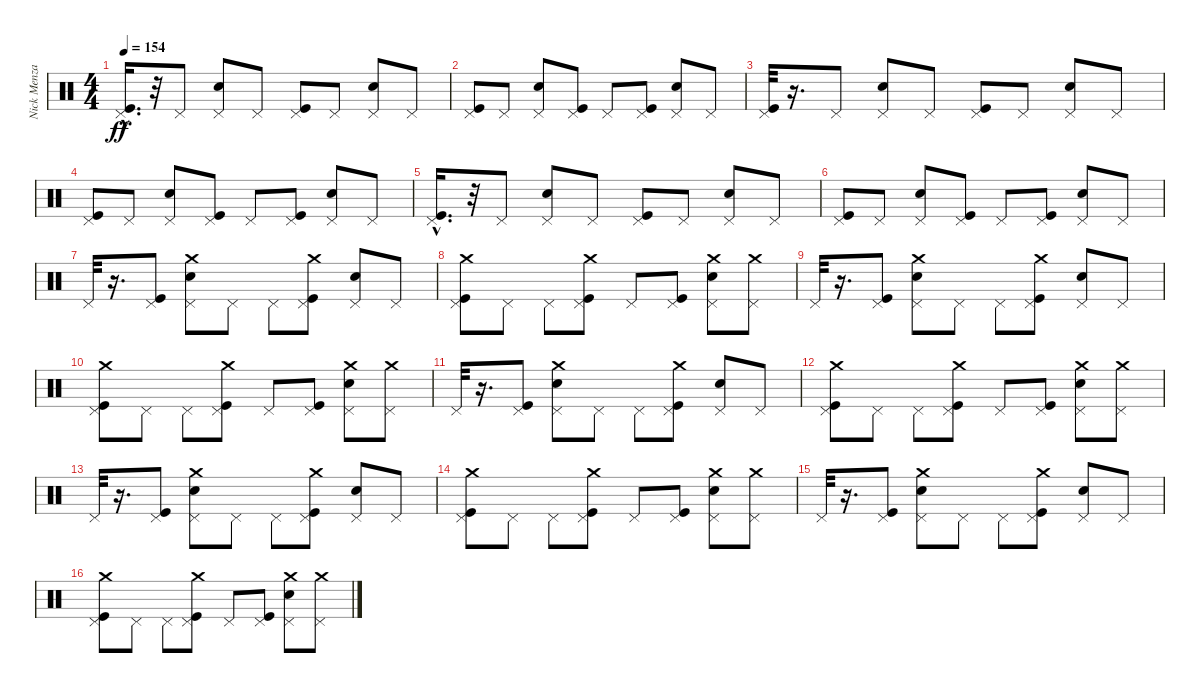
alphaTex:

\track ("Nick Menza" "Nick Menza") {instrument percussion}
\staff {score}
\articulation defaults
\ts (4 4)
\tempo 154
\clef neutral
\ks c
("Pedal Hi-Hat (hit)" "Kick (hit)"{hac}).16{d dy ff} r.32 "Pedal Hi-Hat (hit)".8 ("Pedal Hi-Hat (hit)" "Electric Snare (hit)").8 "Pedal Hi-Hat (hit)".8 ("Kick (hit)" "Pedal Hi-Hat (hit)").8 "Pedal Hi-Hat (hit)".8 ("Electric Snare (hit)" "Pedal Hi-Hat (hit)").8 "Pedal Hi-Hat (hit)".8 |
("Pedal Hi-Hat (hit)" "Kick (hit)").8 "Pedal Hi-Hat (hit)".8 ("Electric Snare (hit)" "Pedal Hi-Hat (hit)").8 ("Kick (hit)" "Pedal Hi-Hat (hit)").8 "Pedal Hi-Hat (hit)".8 ("Kick (hit)" "Pedal Hi-Hat (hit)").8 ("Electric Snare (hit)" "Pedal Hi-Hat (hit)").8 "Pedal Hi-Hat (hit)".8 |
("Kick (hit)" "Pedal Hi-Hat (hit)").32 r.16{d} "Pedal Hi-Hat (hit)".8 ("Pedal Hi-Hat (hit)" "Electric Snare (hit)").8 "Pedal Hi-Hat (hit)".8 ("Kick (hit)" "Pedal Hi-Hat (hit)").8 "Pedal Hi-Hat (hit)".8 ("Electric Snare (hit)" "Pedal Hi-Hat (hit)").8 "Pedal Hi-Hat (hit)".8 |
("Pedal Hi-Hat (hit)" "Kick (hit)").8 "Pedal Hi-Hat (hit)".8 ("Pedal Hi-Hat (hit)" "Electric Snare (hit)").8 ("Pedal Hi-Hat (hit)" "Kick (hit)").8 "Pedal Hi-Hat (hit)".8 ("Kick (hit)" "Pedal Hi-Hat (hit)").8 ("Electric Snare (hit)" "Pedal Hi-Hat (hit)").8 "Pedal Hi-Hat (hit)".8 |
("Pedal Hi-Hat (hit)" "Kick (hit)"{hac}).16{d} r.32 "Pedal Hi-Hat (hit)".8 ("Pedal Hi-Hat (hit)" "Electric Snare (hit)").8 "Pedal Hi-Hat (hit)".8 ("Kick (hit)" "Pedal Hi-Hat (hit)").8 "Pedal Hi-Hat (hit)".8 ("Electric Snare (hit)" "Pedal Hi-Hat (hit)").8 "Pedal Hi-Hat (hit)".8 |
("Pedal Hi-Hat (hit)" "Kick (hit)").8 "Pedal Hi-Hat (hit)".8 ("Pedal Hi-Hat (hit)" "Electric Snare (hit)").8 ("Pedal Hi-Hat (hit)" "Kick (hit)").8 "Pedal Hi-Hat (hit)".8 ("Kick (hit)" "Pedal Hi-Hat (hit)").8 ("Electric Snare (hit)" "Pedal Hi-Hat (hit)").8 "Pedal Hi-Hat (hit)".8 |
"Pedal Hi-Hat (hit)".32 r.16{d} ("Pedal Hi-Hat (hit)" "Kick (hit)").8 ("Pedal Hi-Hat (hit)" "Crash medium (hit)" "Electric Snare (hit)").8 "Pedal Hi-Hat (hit)".8 "Pedal Hi-Hat (hit)".8 ("Kick (hit)" "Pedal Hi-Hat (hit)" "Crash medium (hit)").8 ("Electric Snare (hit)" "Pedal Hi-Hat (hit)").8 "Pedal Hi-Hat (hit)".8 |
("Crash medium (hit)" "Kick (hit)" "Pedal Hi-Hat (hit)").8 "Pedal Hi-Hat (hit)".8 "Pedal Hi-Hat (hit)".8 ("Crash medium (hit)" "Pedal Hi-Hat (hit)" "Kick (hit)").8 "Pedal Hi-Hat (hit)".8 ("Kick (hit)" "Pedal Hi-Hat (hit)").8 ("Crash medium (hit)" "Electric Snare (hit)" "Pedal Hi-Hat (hit)").8 ("Crash medium (hit)" "Pedal Hi-Hat (hit)").8 |
"Pedal Hi-Hat (hit)".32 r.16{d} ("Pedal Hi-Hat (hit)" "Kick (hit)").8 ("Electric Snare (hit)" "Pedal Hi-Hat (hit)" "Crash medium (hit)").8 "Pedal Hi-Hat (hit)".8 "Pedal Hi-Hat (hit)".8 ("Kick (hit)" "Pedal Hi-Hat (hit)" "Crash medium (hit)").8 ("Electric Snare (hit)" "Pedal Hi-Hat (hit)").8 "Pedal Hi-Hat (hit)".8 |
("Crash medium (hit)" "Pedal Hi-Hat (hit)" "Kick (hit)").8 "Pedal Hi-Hat (hit)".8 "Pedal Hi-Hat (hit)".8 ("Crash medium (hit)" "Pedal Hi-Hat (hit)" "Kick (hit)").8 "Pedal Hi-Hat (hit)".8 ("Kick (hit)" "Pedal Hi-Hat (hit)").8 ("Crash medium (hit)" "Electric Snare (hit)" "Pedal Hi-Hat (hit)").8 ("Crash medium (hit)" "Pedal Hi-Hat (hit)").8 |
"Pedal Hi-Hat (hit)".32 r.16{d} ("Pedal Hi-Hat (hit)" "Kick (hit)").8 ("Crash medium (hit)" "Electric Snare (hit)" "Pedal Hi-Hat (hit)").8 "Pedal Hi-Hat (hit)".8 "Pedal Hi-Hat (hit)".8 ("Crash medium (hit)" "Kick (hit)" "Pedal Hi-Hat (hit)").8 ("Electric Snare (hit)" "Pedal Hi-Hat (hit)").8 "Pedal Hi-Hat (hit)".8 |
("Crash medium (hit)" "Pedal Hi-Hat (hit)" "Kick (hit)").8 "Pedal Hi-Hat (hit)".8 "Pedal Hi-Hat (hit)".8 ("Crash medium (hit)" "Pedal Hi-Hat (hit)" "Kick (hit)").8 "Pedal Hi-Hat (hit)".8 ("Kick (hit)" "Pedal Hi-Hat (hit)").8 ("Crash medium (hit)" "Electric Snare (hit)" "Pedal Hi-Hat (hit)").8 ("Crash medium (hit)" "Pedal Hi-Hat (hit)").8 |
"Pedal Hi-Hat (hit)".32 r.16{d} ("Pedal Hi-Hat (hit)" "Kick (hit)").8 ("Crash medium (hit)" "Pedal Hi-Hat (hit)" "Electric Snare (hit)").8 "Pedal Hi-Hat (hit)".8 "Pedal Hi-Hat (hit)".8 ("Kick (hit)" "Pedal Hi-Hat (hit)" "Crash medium (hit)").8 ("Electric Snare (hit)" "Pedal Hi-Hat (hit)").8 "Pedal Hi-Hat (hit)".8 |
("Crash medium (hit)" "Kick (hit)" "Pedal Hi-Hat (hit)").8 "Pedal Hi-Hat (hit)".8 "Pedal Hi-Hat (hit)".8 ("Crash medium (hit)" "Pedal Hi-Hat (hit)" "Kick (hit)").8 "Pedal Hi-Hat (hit)".8 ("Kick (hit)" "Pedal Hi-Hat (hit)").8 ("Crash medium (hit)" "Electric Snare (hit)" "Pedal Hi-Hat (hit)").8 ("Crash medium (hit)" "Pedal Hi-Hat (hit)").8 |
"Pedal Hi-Hat (hit)".32 r.16{d} ("Pedal Hi-Hat (hit)" "Kick (hit)").8 ("Electric Snare (hit)" "Pedal Hi-Hat (hit)" "Crash medium (hit)").8 "Pedal Hi-Hat (hit)".8 "Pedal Hi-Hat (hit)".8 ("Kick (hit)" "Pedal Hi-Hat (hit)" "Crash medium (hit)").8 ("Electric Snare (hit)" "Pedal Hi-Hat (hit)").8 "Pedal Hi-Hat (hit)".8 |
("Crash medium (hit)" "Kick (hit)" "Pedal Hi-Hat (hit)").8 "Pedal Hi-Hat (hit)".8 "Pedal Hi-Hat (hit)".8 ("Crash medium (hit)" "Pedal Hi-Hat (hit)" "Kick (hit)").8 "Pedal Hi-Hat (hit)".8 ("Kick (hit)" "Pedal Hi-Hat (hit)").8 ("Crash medium (hit)" "Electric Snare (hit)" "Pedal Hi-Hat (hit)").8 ("Crash medium (hit)" "Pedal Hi-Hat (hit)").8
